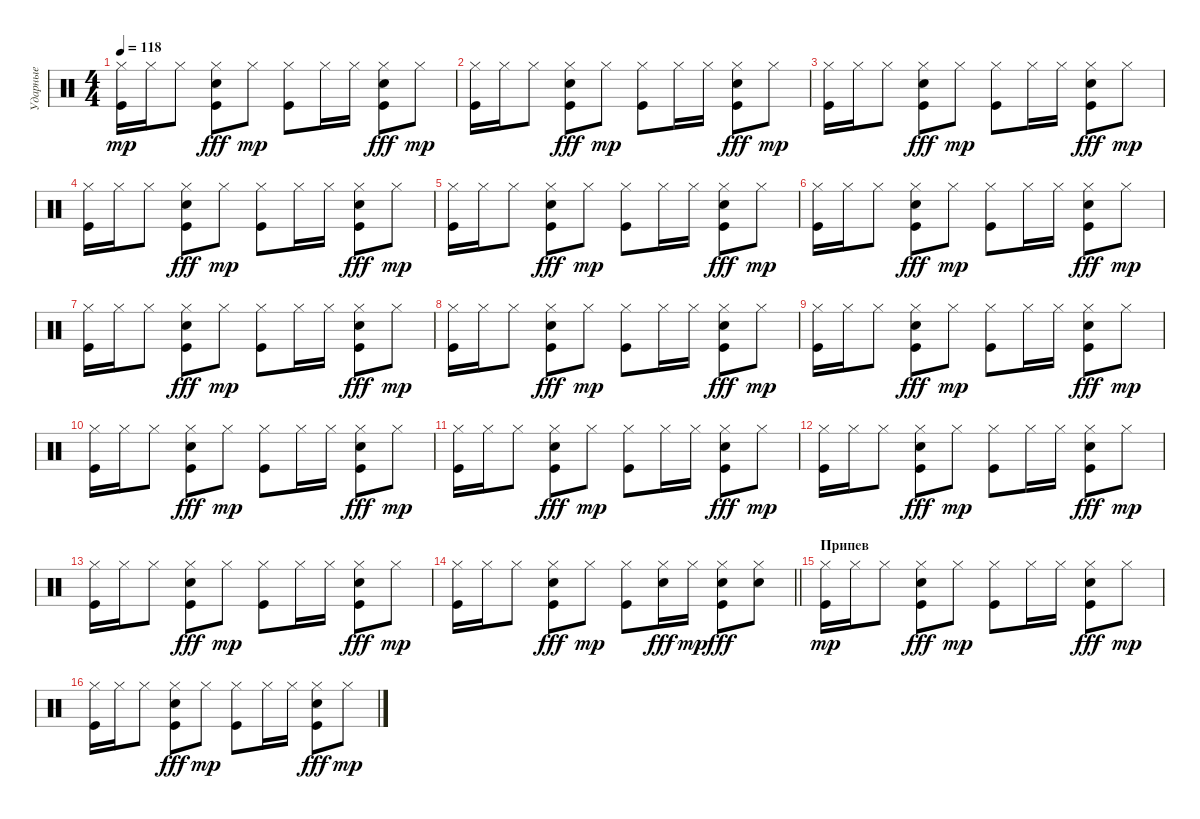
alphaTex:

\track ("Ударные" "Ударные") {instrument percussion}
\staff {score}
\articulation defaults
\ts (4 4)
\tempo 118
\clef neutral
\ks c
("Kick (hit)" "Hi-Hat (closed)").16{dy mp} "Hi-Hat (closed)".16 "Hi-Hat (closed)".8 ("Kick (hit)" "Hi-Hat (closed)" "Electric Snare (hit)").8{dy fff} "Hi-Hat (closed)".8{dy mp} ("Kick (hit)" "Hi-Hat (closed)").8 "Hi-Hat (closed)".16 "Hi-Hat (closed)".16 ("Hi-Hat (closed)" "Kick (hit)" "Electric Snare (hit)").8{dy fff} "Hi-Hat (closed)".8{dy mp} |
("Kick (hit)" "Hi-Hat (closed)").16 "Hi-Hat (closed)".16 "Hi-Hat (closed)".8 ("Kick (hit)" "Hi-Hat (closed)" "Electric Snare (hit)").8{dy fff} "Hi-Hat (closed)".8{dy mp} ("Kick (hit)" "Hi-Hat (closed)").8 "Hi-Hat (closed)".16 "Hi-Hat (closed)".16 ("Hi-Hat (closed)" "Kick (hit)" "Electric Snare (hit)").8{dy fff} "Hi-Hat (closed)".8{dy mp} |
("Kick (hit)" "Hi-Hat (closed)").16 "Hi-Hat (closed)".16 "Hi-Hat (closed)".8 ("Kick (hit)" "Hi-Hat (closed)" "Electric Snare (hit)").8{dy fff} "Hi-Hat (closed)".8{dy mp} ("Kick (hit)" "Hi-Hat (closed)").8 "Hi-Hat (closed)".16 "Hi-Hat (closed)".16 ("Hi-Hat (closed)" "Kick (hit)" "Electric Snare (hit)").8{dy fff} "Hi-Hat (closed)".8{dy mp} |
("Kick (hit)" "Hi-Hat (closed)").16 "Hi-Hat (closed)".16 "Hi-Hat (closed)".8 ("Kick (hit)" "Hi-Hat (closed)" "Electric Snare (hit)").8{dy fff} "Hi-Hat (closed)".8{dy mp} ("Kick (hit)" "Hi-Hat (closed)").8 "Hi-Hat (closed)".16 "Hi-Hat (closed)".16 ("Hi-Hat (closed)" "Kick (hit)" "Electric Snare (hit)").8{dy fff} "Hi-Hat (closed)".8{dy mp} |
("Kick (hit)" "Hi-Hat (closed)").16 "Hi-Hat (closed)".16 "Hi-Hat (closed)".8 ("Kick (hit)" "Hi-Hat (closed)" "Electric Snare (hit)").8{dy fff} "Hi-Hat (closed)".8{dy mp} ("Kick (hit)" "Hi-Hat (closed)").8 "Hi-Hat (closed)".16 "Hi-Hat (closed)".16 ("Hi-Hat (closed)" "Kick (hit)" "Electric Snare (hit)").8{dy fff} "Hi-Hat (closed)".8{dy mp} |
("Kick (hit)" "Hi-Hat (closed)").16 "Hi-Hat (closed)".16 "Hi-Hat (closed)".8 ("Kick (hit)" "Hi-Hat (closed)" "Electric Snare (hit)").8{dy fff} "Hi-Hat (closed)".8{dy mp} ("Kick (hit)" "Hi-Hat (closed)").8 "Hi-Hat (closed)".16 "Hi-Hat (closed)".16 ("Hi-Hat (closed)" "Kick (hit)" "Electric Snare (hit)").8{dy fff} "Hi-Hat (closed)".8{dy mp} |
("Kick (hit)" "Hi-Hat (closed)").16 "Hi-Hat (closed)".16 "Hi-Hat (closed)".8 ("Kick (hit)" "Hi-Hat (closed)" "Electric Snare (hit)").8{dy fff} "Hi-Hat (closed)".8{dy mp} ("Kick (hit)" "Hi-Hat (closed)").8 "Hi-Hat (closed)".16 "Hi-Hat (closed)".16 ("Hi-Hat (closed)" "Kick (hit)" "Electric Snare (hit)").8{dy fff} "Hi-Hat (closed)".8{dy mp} |
("Kick (hit)" "Hi-Hat (closed)").16 "Hi-Hat (closed)".16 "Hi-Hat (closed)".8 ("Kick (hit)" "Hi-Hat (closed)" "Electric Snare (hit)").8{dy fff} "Hi-Hat (closed)".8{dy mp} ("Kick (hit)" "Hi-Hat (closed)").8 "Hi-Hat (closed)".16 "Hi-Hat (closed)".16 ("Hi-Hat (closed)" "Kick (hit)" "Electric Snare (hit)").8{dy fff} "Hi-Hat (closed)".8{dy mp} |
("Kick (hit)" "Hi-Hat (closed)").16 "Hi-Hat (closed)".16 "Hi-Hat (closed)".8 ("Kick (hit)" "Hi-Hat (closed)" "Electric Snare (hit)").8{dy fff} "Hi-Hat (closed)".8{dy mp} ("Kick (hit)" "Hi-Hat (closed)").8 "Hi-Hat (closed)".16 "Hi-Hat (closed)".16 ("Hi-Hat (closed)" "Kick (hit)" "Electric Snare (hit)").8{dy fff} "Hi-Hat (closed)".8{dy mp} |
("Kick (hit)" "Hi-Hat (closed)").16 "Hi-Hat (closed)".16 "Hi-Hat (closed)".8 ("Kick (hit)" "Hi-Hat (closed)" "Electric Snare (hit)").8{dy fff} "Hi-Hat (closed)".8{dy mp} ("Kick (hit)" "Hi-Hat (closed)").8 "Hi-Hat (closed)".16 "Hi-Hat (closed)".16 ("Hi-Hat (closed)" "Kick (hit)" "Electric Snare (hit)").8{dy fff} "Hi-Hat (closed)".8{dy mp} |
("Kick (hit)" "Hi-Hat (closed)").16 "Hi-Hat (closed)".16 "Hi-Hat (closed)".8 ("Kick (hit)" "Hi-Hat (closed)" "Electric Snare (hit)").8{dy fff} "Hi-Hat (closed)".8{dy mp} ("Kick (hit)" "Hi-Hat (closed)").8 "Hi-Hat (closed)".16 "Hi-Hat (closed)".16 ("Hi-Hat (closed)" "Kick (hit)" "Electric Snare (hit)").8{dy fff} "Hi-Hat (closed)".8{dy mp} |
("Kick (hit)" "Hi-Hat (closed)").16 "Hi-Hat (closed)".16 "Hi-Hat (closed)".8 ("Kick (hit)" "Hi-Hat (closed)" "Electric Snare (hit)").8{dy fff} "Hi-Hat (closed)".8{dy mp} ("Kick (hit)" "Hi-Hat (closed)").8 "Hi-Hat (closed)".16 "Hi-Hat (closed)".16 ("Hi-Hat (closed)" "Kick (hit)" "Electric Snare (hit)").8{dy fff} "Hi-Hat (closed)".8{dy mp} |
("Kick (hit)" "Hi-Hat (closed)").16 "Hi-Hat (closed)".16 "Hi-Hat (closed)".8 ("Kick (hit)" "Hi-Hat (closed)" "Electric Snare (hit)").8{dy fff} "Hi-Hat (closed)".8{dy mp} ("Kick (hit)" "Hi-Hat (closed)").8 "Hi-Hat (closed)".16 "Hi-Hat (closed)".16 ("Hi-Hat (closed)" "Kick (hit)" "Electric Snare (hit)").8{dy fff} "Hi-Hat (closed)".8{dy mp} |
\barLineRight lightlight
("Kick (hit)" "Hi-Hat (closed)").16 "Hi-Hat (closed)".16 "Hi-Hat (closed)".8 ("Kick (hit)" "Hi-Hat (closed)" "Electric Snare (hit)").8{dy fff} "Hi-Hat (closed)".8{dy mp} ("Kick (hit)" "Hi-Hat (closed)").8 ("Hi-Hat (closed)" "Electric Snare (hit)").16{dy fff} "Hi-Hat (closed)".16{dy mp} ("Hi-Hat (closed)" "Kick (hit)" "Electric Snare (hit)").8{dy fff} ("Hi-Hat (closed)" "Electric Snare (hit)").8 |
\section ("" "Припев")
("Kick (hit)" "Hi-Hat (closed)").16{dy mp} "Hi-Hat (closed)".16 "Hi-Hat (closed)".8 ("Kick (hit)" "Hi-Hat (closed)" "Electric Snare (hit)").8{dy fff} "Hi-Hat (closed)".8{dy mp} ("Kick (hit)" "Hi-Hat (closed)").8 "Hi-Hat (closed)".16 "Hi-Hat (closed)".16 ("Hi-Hat (closed)" "Kick (hit)" "Electric Snare (hit)").8{dy fff} "Hi-Hat (closed)".8{dy mp} |
("Kick (hit)" "Hi-Hat (closed)").16 "Hi-Hat (closed)".16 "Hi-Hat (closed)".8 ("Kick (hit)" "Hi-Hat (closed)" "Electric Snare (hit)").8{dy fff} "Hi-Hat (closed)".8{dy mp} ("Kick (hit)" "Hi-Hat (closed)").8 "Hi-Hat (closed)".16 "Hi-Hat (closed)".16 ("Hi-Hat (closed)" "Kick (hit)" "Electric Snare (hit)").8{dy fff} "Hi-Hat (closed)".8{dy mp}
